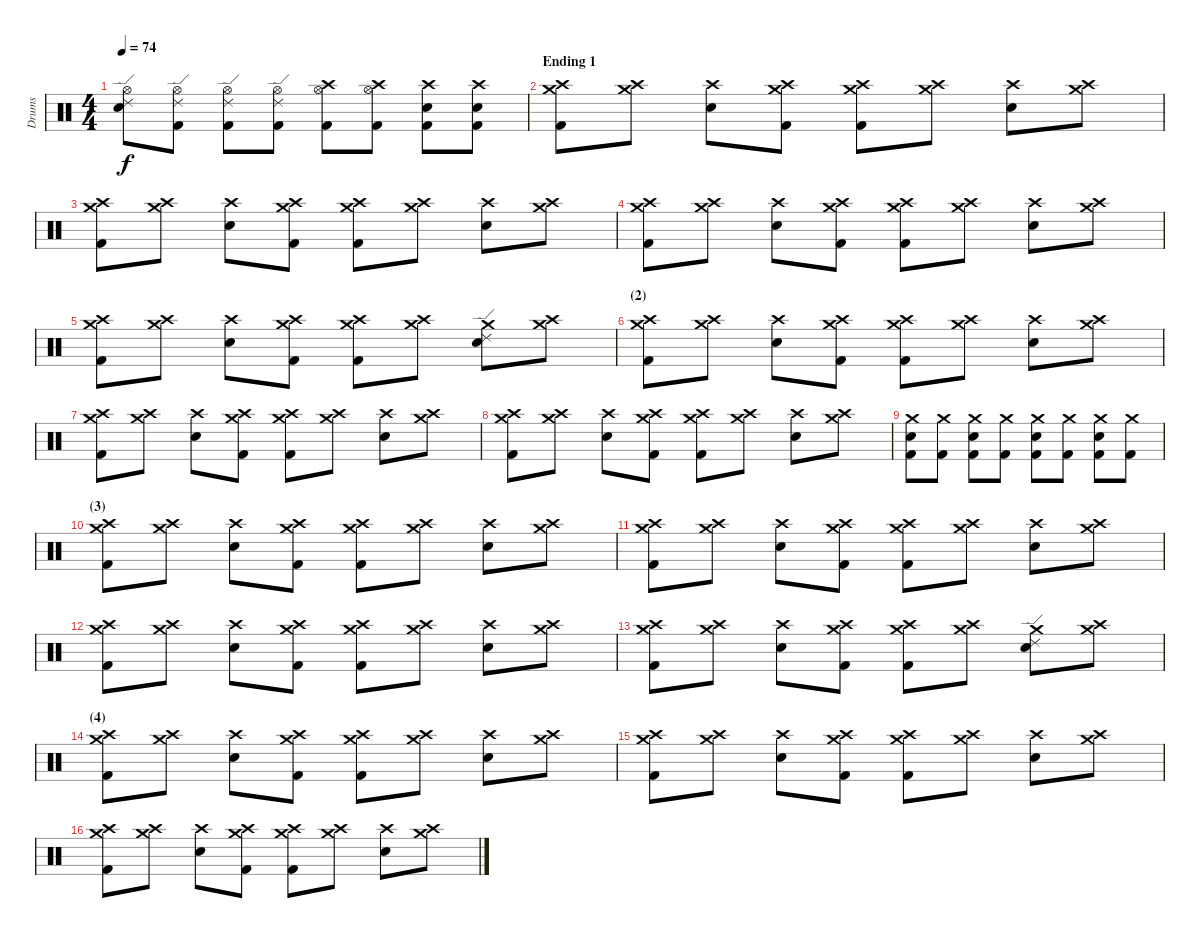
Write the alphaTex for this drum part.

\track ("Drums" "Drums") {instrument percussion}
\staff {score}
\articulation defaults
\ts (4 4)
\tempo 74
\clef neutral
\ks c
("Hi-Hat (open)" "Ride (edge) 2" "Snare (hit) 2").8{dy f} ("Hi-Hat (open)" "Ride (edge) 2" "Kick (hit) 2").8 ("Hi-Hat (open)" "Ride (edge) 2" "Kick (hit) 2").8 ("Hi-Hat (open)" "Ride (edge) 2" "Kick (hit) 2").8 ("Hi-Hat (open)" "Crash high (hit)" "Kick (hit) 2").8 ("Hi-Hat (open)" "Crash high (hit)" "Kick (hit) 2").8 ("Crash high (hit)" "Snare (hit) 2" "Kick (hit) 2").8 ("Crash high (hit)" "Snare (hit) 2" "Kick (hit) 2").8 |
\section ("" "Ending 1")
("Crash medium (hit)" "Crash high (hit)" "Kick (hit) 2").8 ("Crash medium (hit)" "Crash high (hit)").8 ("Crash high (hit)" "Snare (hit) 2").8 ("Crash medium (hit)" "Crash high (hit)" "Kick (hit) 2").8 ("Crash medium (hit)" "Crash high (hit)" "Kick (hit) 2").8 ("Crash medium (hit)" "Crash high (hit)").8 ("Crash high (hit)" "Snare (hit) 2").8 ("Crash medium (hit)" "Crash high (hit)").8 |
("Crash medium (hit)" "Crash high (hit)" "Kick (hit) 2").8 ("Crash medium (hit)" "Crash high (hit)").8 ("Crash high (hit)" "Snare (hit) 2").8 ("Crash medium (hit)" "Crash high (hit)" "Kick (hit) 2").8 ("Crash medium (hit)" "Crash high (hit)" "Kick (hit) 2").8 ("Crash medium (hit)" "Crash high (hit)").8 ("Crash high (hit)" "Snare (hit) 2").8 ("Crash medium (hit)" "Crash high (hit)").8 |
("Crash medium (hit)" "Crash high (hit)" "Kick (hit) 2").8 ("Crash medium (hit)" "Crash high (hit)").8 ("Crash high (hit)" "Snare (hit) 2").8 ("Crash medium (hit)" "Crash high (hit)" "Kick (hit) 2").8 ("Crash medium (hit)" "Crash high (hit)" "Kick (hit) 2").8 ("Crash medium (hit)" "Crash high (hit)").8 ("Crash high (hit)" "Snare (hit) 2").8 ("Crash medium (hit)" "Crash high (hit)").8 |
("Crash medium (hit)" "Crash high (hit)" "Kick (hit) 2").8 ("Crash medium (hit)" "Crash high (hit)").8 ("Crash high (hit)" "Snare (hit) 2").8 ("Crash medium (hit)" "Crash high (hit)" "Kick (hit) 2").8 ("Crash medium (hit)" "Crash high (hit)" "Kick (hit) 2").8 ("Crash medium (hit)" "Crash high (hit)").8 ("Crash medium (hit)" "Ride (edge) 2" "Snare (hit) 2").8 ("Crash medium (hit)" "Crash high (hit)").8 |
\section ("" "(2)")
("Crash medium (hit)" "Crash high (hit)" "Kick (hit) 2").8 ("Crash medium (hit)" "Crash high (hit)").8 ("Crash high (hit)" "Snare (hit) 2").8 ("Crash medium (hit)" "Crash high (hit)" "Kick (hit) 2").8 ("Crash medium (hit)" "Crash high (hit)" "Kick (hit) 2").8 ("Crash medium (hit)" "Crash high (hit)").8 ("Crash high (hit)" "Snare (hit) 2").8 ("Crash medium (hit)" "Crash high (hit)").8 |
("Crash medium (hit)" "Crash high (hit)" "Kick (hit) 2").8 ("Crash medium (hit)" "Crash high (hit)").8 ("Crash high (hit)" "Snare (hit) 2").8 ("Crash medium (hit)" "Crash high (hit)" "Kick (hit) 2").8 ("Crash medium (hit)" "Crash high (hit)" "Kick (hit) 2").8 ("Crash medium (hit)" "Crash high (hit)").8 ("Crash high (hit)" "Snare (hit) 2").8 ("Crash medium (hit)" "Crash high (hit)").8 |
("Crash medium (hit)" "Crash high (hit)" "Kick (hit) 2").8 ("Crash medium (hit)" "Crash high (hit)").8 ("Crash high (hit)" "Snare (hit) 2").8 ("Crash medium (hit)" "Crash high (hit)" "Kick (hit) 2").8 ("Crash medium (hit)" "Crash high (hit)" "Kick (hit) 2").8 ("Crash medium (hit)" "Crash high (hit)").8 ("Crash high (hit)" "Snare (hit) 2").8 ("Crash medium (hit)" "Crash high (hit)").8 |
("Crash medium (hit)" "Snare (hit) 2" "Kick (hit) 2").8 ("Crash medium (hit)" "Kick (hit) 2").8 ("Crash medium (hit)" "Snare (hit) 2" "Kick (hit) 2").8 ("Crash medium (hit)" "Kick (hit) 2").8 ("Crash medium (hit)" "Snare (hit) 2" "Kick (hit) 2").8 ("Crash medium (hit)" "Kick (hit) 2").8 ("Crash medium (hit)" "Snare (hit) 2" "Kick (hit) 2").8 ("Crash medium (hit)" "Kick (hit) 2").8 |
\section ("" "(3)")
("Crash medium (hit)" "Crash high (hit)" "Kick (hit) 2").8 ("Crash medium (hit)" "Crash high (hit)").8 ("Crash high (hit)" "Snare (hit) 2").8 ("Crash medium (hit)" "Crash high (hit)" "Kick (hit) 2").8 ("Crash medium (hit)" "Crash high (hit)" "Kick (hit) 2").8 ("Crash medium (hit)" "Crash high (hit)").8 ("Crash high (hit)" "Snare (hit) 2").8 ("Crash medium (hit)" "Crash high (hit)").8 |
("Crash medium (hit)" "Crash high (hit)" "Kick (hit) 2").8 ("Crash medium (hit)" "Crash high (hit)").8 ("Crash high (hit)" "Snare (hit) 2").8 ("Crash medium (hit)" "Crash high (hit)" "Kick (hit) 2").8 ("Crash medium (hit)" "Crash high (hit)" "Kick (hit) 2").8 ("Crash medium (hit)" "Crash high (hit)").8 ("Crash high (hit)" "Snare (hit) 2").8 ("Crash medium (hit)" "Crash high (hit)").8 |
("Crash medium (hit)" "Crash high (hit)" "Kick (hit) 2").8 ("Crash medium (hit)" "Crash high (hit)").8 ("Crash high (hit)" "Snare (hit) 2").8 ("Crash medium (hit)" "Crash high (hit)" "Kick (hit) 2").8 ("Crash medium (hit)" "Crash high (hit)" "Kick (hit) 2").8 ("Crash medium (hit)" "Crash high (hit)").8 ("Crash high (hit)" "Snare (hit) 2").8 ("Crash medium (hit)" "Crash high (hit)").8 |
("Crash medium (hit)" "Crash high (hit)" "Kick (hit) 2").8 ("Crash medium (hit)" "Crash high (hit)").8 ("Crash high (hit)" "Snare (hit) 2").8 ("Crash medium (hit)" "Crash high (hit)" "Kick (hit) 2").8 ("Crash medium (hit)" "Crash high (hit)" "Kick (hit) 2").8 ("Crash medium (hit)" "Crash high (hit)").8 ("Crash medium (hit)" "Ride (edge) 2" "Snare (hit) 2").8 ("Crash medium (hit)" "Crash high (hit)").8 |
\section ("" "(4)")
("Crash medium (hit)" "Crash high (hit)" "Kick (hit) 2").8 ("Crash medium (hit)" "Crash high (hit)").8 ("Crash high (hit)" "Snare (hit) 2").8 ("Crash medium (hit)" "Crash high (hit)" "Kick (hit) 2").8 ("Crash medium (hit)" "Crash high (hit)" "Kick (hit) 2").8 ("Crash medium (hit)" "Crash high (hit)").8 ("Crash high (hit)" "Snare (hit) 2").8 ("Crash medium (hit)" "Crash high (hit)").8 |
("Crash medium (hit)" "Crash high (hit)" "Kick (hit) 2").8 ("Crash medium (hit)" "Crash high (hit)").8 ("Crash high (hit)" "Snare (hit) 2").8 ("Crash medium (hit)" "Crash high (hit)" "Kick (hit) 2").8 ("Crash medium (hit)" "Crash high (hit)" "Kick (hit) 2").8 ("Crash medium (hit)" "Crash high (hit)").8 ("Crash high (hit)" "Snare (hit) 2").8 ("Crash medium (hit)" "Crash high (hit)").8 |
("Crash medium (hit)" "Crash high (hit)" "Kick (hit) 2").8 ("Crash medium (hit)" "Crash high (hit)").8 ("Crash high (hit)" "Snare (hit) 2").8 ("Crash medium (hit)" "Crash high (hit)" "Kick (hit) 2").8 ("Crash medium (hit)" "Crash high (hit)" "Kick (hit) 2").8 ("Crash medium (hit)" "Crash high (hit)").8 ("Crash high (hit)" "Snare (hit) 2").8 ("Crash medium (hit)" "Crash high (hit)").8
